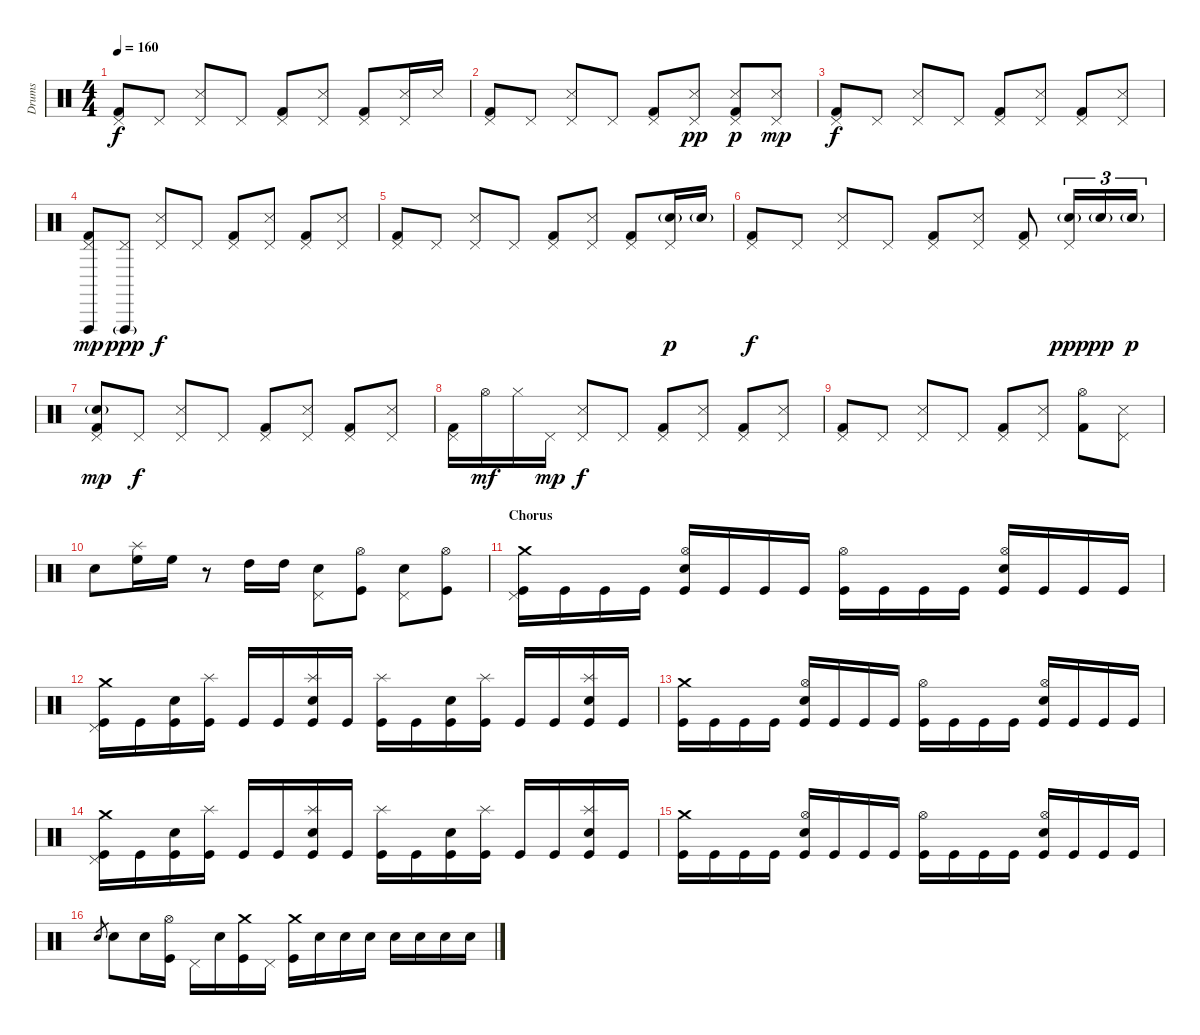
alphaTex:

\track ("Drums" "Drums") {instrument percussion}
\staff {score}
\articulation defaults
\ts (4 4)
\tempo 160
\clef neutral
\ks c
("Pedal Hi-Hat (hit)" "Kick (hit) 2").8{dy f} "Pedal Hi-Hat (hit)".8 ("Pedal Hi-Hat (hit)" "Snare (side stick) 3").8 "Pedal Hi-Hat (hit)".8 ("Pedal Hi-Hat (hit)" "Kick (hit) 2").8 ("Pedal Hi-Hat (hit)" "Snare (side stick) 3").8 ("Pedal Hi-Hat (hit)" "Kick (hit) 2").8 ("Pedal Hi-Hat (hit)" "Snare (side stick) 3").16 "Snare (side stick) 3".16 |
("Pedal Hi-Hat (hit)" "Kick (hit) 2").8 "Pedal Hi-Hat (hit)".8 ("Pedal Hi-Hat (hit)" "Snare (side stick) 3").8 "Pedal Hi-Hat (hit)".8 ("Pedal Hi-Hat (hit)" "Kick (hit) 2").8 ("Pedal Hi-Hat (hit)" "Snare (side stick) 3").8{dy pp} ("Pedal Hi-Hat (hit)" "Snare (side stick) 3" "Kick (hit) 2").8{dy p} ("Pedal Hi-Hat (hit)" "Snare (side stick) 3").8{dy mp} |
("Pedal Hi-Hat (hit)" "Kick (hit) 2").8{dy f} "Pedal Hi-Hat (hit)".8 ("Pedal Hi-Hat (hit)" "Snare (side stick) 3").8 "Pedal Hi-Hat (hit)".8 ("Pedal Hi-Hat (hit)" "Kick (hit) 2").8 ("Pedal Hi-Hat (hit)" "Snare (side stick) 3").8 ("Pedal Hi-Hat (hit)" "Kick (hit) 2").8 ("Pedal Hi-Hat (hit)" "Snare (side stick) 3").8 |
("Pedal Hi-Hat (hit)" "Vibraslap (hit)" "Kick (hit) 2").8{dy mp} ("Pedal Hi-Hat (hit)" "Vibraslap (hit)"{g}).8{dy ppp} ("Pedal Hi-Hat (hit)" "Snare (side stick) 3").8{dy f} "Pedal Hi-Hat (hit)".8 ("Pedal Hi-Hat (hit)" "Kick (hit) 2").8 ("Pedal Hi-Hat (hit)" "Snare (side stick) 3").8 ("Pedal Hi-Hat (hit)" "Kick (hit) 2").8 ("Pedal Hi-Hat (hit)" "Snare (side stick) 3").8 |
("Pedal Hi-Hat (hit)" "Kick (hit) 2").8 "Pedal Hi-Hat (hit)".8 ("Pedal Hi-Hat (hit)" "Snare (side stick) 3").8 "Pedal Hi-Hat (hit)".8 ("Pedal Hi-Hat (hit)" "Kick (hit) 2").8 ("Pedal Hi-Hat (hit)" "Snare (side stick) 3").8 ("Pedal Hi-Hat (hit)" "Kick (hit) 2").8 ("Pedal Hi-Hat (hit)" "Electric Snare (hit)"{g}).16{dy p} "Electric Snare (hit)"{g}.16 |
("Pedal Hi-Hat (hit)" "Kick (hit) 2").8{dy f} "Pedal Hi-Hat (hit)".8 ("Pedal Hi-Hat (hit)" "Snare (side stick) 3").8 "Pedal Hi-Hat (hit)".8 ("Pedal Hi-Hat (hit)" "Kick (hit) 2").8 ("Pedal Hi-Hat (hit)" "Snare (side stick) 3").8 ("Pedal Hi-Hat (hit)" "Kick (hit) 2").8 ("Pedal Hi-Hat (hit)" "Electric Snare (hit)"{g}).16{tu (3 2) dy ppp} "Electric Snare (hit)"{g}.16{tu (3 2) dy pp} "Electric Snare (hit)"{g}.16{tu (3 2) dy p} |
("Pedal Hi-Hat (hit)" "Electric Snare (hit)"{g} "Kick (hit) 2").8{dy mp} "Pedal Hi-Hat (hit)".8{dy f} ("Pedal Hi-Hat (hit)" "Snare (side stick) 3").8 "Pedal Hi-Hat (hit)".8 ("Pedal Hi-Hat (hit)" "Kick (hit) 2").8 ("Pedal Hi-Hat (hit)" "Snare (side stick) 3").8 ("Pedal Hi-Hat (hit)" "Kick (hit) 2").8 ("Pedal Hi-Hat (hit)" "Snare (side stick) 3").8 |
("Pedal Hi-Hat (hit)" "Kick (hit) 2").16 "Hi-Hat (open)".16{dy mf} "Hi-Hat (closed)".16 "Pedal Hi-Hat (hit)".16{dy mp} ("Pedal Hi-Hat (hit)" "Snare (side stick) 3").8{dy f} "Pedal Hi-Hat (hit)".8 ("Pedal Hi-Hat (hit)" "Kick (hit) 2").8 ("Pedal Hi-Hat (hit)" "Snare (side stick) 3").8 ("Pedal Hi-Hat (hit)" "Kick (hit) 2").8 ("Pedal Hi-Hat (hit)" "Snare (side stick) 3").8 |
("Pedal Hi-Hat (hit)" "Kick (hit) 2").8 "Pedal Hi-Hat (hit)".8 ("Pedal Hi-Hat (hit)" "Snare (side stick) 3").8 "Pedal Hi-Hat (hit)".8 ("Pedal Hi-Hat (hit)" "Kick (hit) 2").8 ("Pedal Hi-Hat (hit)" "Snare (side stick) 3").8 ("Hi-Hat (open)" "Kick (hit) 2").8 ("Pedal Hi-Hat (hit)" "Snare (side stick) 3").8 |
"Electric Snare (hit)".8 ("Splash (hit)" "High Floor Tom (hit)").16 "High Floor Tom (hit)".16 r.8 "High Tom (hit)".16 "High Tom (hit)".16 ("Pedal Hi-Hat (hit)" "Electric Snare (hit)").8 ("Hi-Hat (open)" "Kick (hit)").8 ("Pedal Hi-Hat (hit)" "Electric Snare (hit)").8 ("Hi-Hat (open)" "Kick (hit)").8 |
\section ("" "Chorus")
("Crash medium (hit)" "Pedal Hi-Hat (hit)" "Kick (hit)").16 "Kick (hit)".16 "Kick (hit)".16 "Kick (hit)".16 ("Hi-Hat (open)" "Electric Snare (hit)" "Kick (hit)").16 "Kick (hit)".16 "Kick (hit)".16 "Kick (hit)".16 ("Hi-Hat (open)" "Kick (hit)").16 "Kick (hit)".16 "Kick (hit)".16 "Kick (hit)".16 ("Hi-Hat (open)" "Electric Snare (hit)" "Kick (hit)").16 "Kick (hit)".16 "Kick (hit)".16 "Kick (hit)".16 |
("Crash medium (hit)" "Pedal Hi-Hat (hit)" "Kick (hit)").16 "Kick (hit)".16 ("Electric Snare (hit)" "Kick (hit)").16 ("Splash (hit)" "Kick (hit)").16 "Kick (hit)".16 "Kick (hit)".16 ("Splash (hit)" "Electric Snare (hit)" "Kick (hit)").16 "Kick (hit)".16 ("Splash (hit)" "Kick (hit)").16 "Kick (hit)".16 ("Electric Snare (hit)" "Kick (hit)").16 ("Splash (hit)" "Kick (hit)").16 "Kick (hit)".16 "Kick (hit)".16 ("Splash (hit)" "Electric Snare (hit)" "Kick (hit)").16 "Kick (hit)".16 |
("Crash medium (hit)" "Kick (hit)").16 "Kick (hit)".16 "Kick (hit)".16 "Kick (hit)".16 ("Hi-Hat (open)" "Electric Snare (hit)" "Kick (hit)").16 "Kick (hit)".16 "Kick (hit)".16 "Kick (hit)".16 ("Hi-Hat (open)" "Kick (hit)").16 "Kick (hit)".16 "Kick (hit)".16 "Kick (hit)".16 ("Hi-Hat (open)" "Electric Snare (hit)" "Kick (hit)").16 "Kick (hit)".16 "Kick (hit)".16 "Kick (hit)".16 |
("Crash medium (hit)" "Pedal Hi-Hat (hit)" "Kick (hit)").16 "Kick (hit)".16 ("Electric Snare (hit)" "Kick (hit)").16 ("Splash (hit)" "Kick (hit)").16 "Kick (hit)".16 "Kick (hit)".16 ("Splash (hit)" "Electric Snare (hit)" "Kick (hit)").16 "Kick (hit)".16 ("Splash (hit)" "Kick (hit)").16 "Kick (hit)".16 ("Electric Snare (hit)" "Kick (hit)").16 ("Splash (hit)" "Kick (hit)").16 "Kick (hit)".16 "Kick (hit)".16 ("Splash (hit)" "Electric Snare (hit)" "Kick (hit)").16 "Kick (hit)".16 |
("Crash medium (hit)" "Kick (hit)").16 "Kick (hit)".16 "Kick (hit)".16 "Kick (hit)".16 ("Hi-Hat (open)" "Electric Snare (hit)" "Kick (hit)").16 "Kick (hit)".16 "Kick (hit)".16 "Kick (hit)".16 ("Hi-Hat (open)" "Kick (hit)").16 "Kick (hit)".16 "Kick (hit)".16 "Kick (hit)".16 ("Hi-Hat (open)" "Electric Snare (hit)" "Kick (hit)").16 "Kick (hit)".16 "Kick (hit)".16 "Kick (hit)".16 |
"Electric Snare (hit)".8{gr} "Electric Snare (hit)".8 "Electric Snare (hit)".16 ("Hi-Hat (open)" "Kick (hit)").16 "Pedal Hi-Hat (hit)".16 "Electric Snare (hit)".16 ("Crash medium (hit)" "Kick (hit)").16 "Pedal Hi-Hat (hit)".16 ("Crash medium (hit)" "Kick (hit)").16 "Electric Snare (hit)".16 "Electric Snare (hit)".16 "Electric Snare (hit)".16 "Electric Snare (hit)".16 "Electric Snare (hit)".16 "Electric Snare (hit)".16 "Electric Snare (hit)".16
